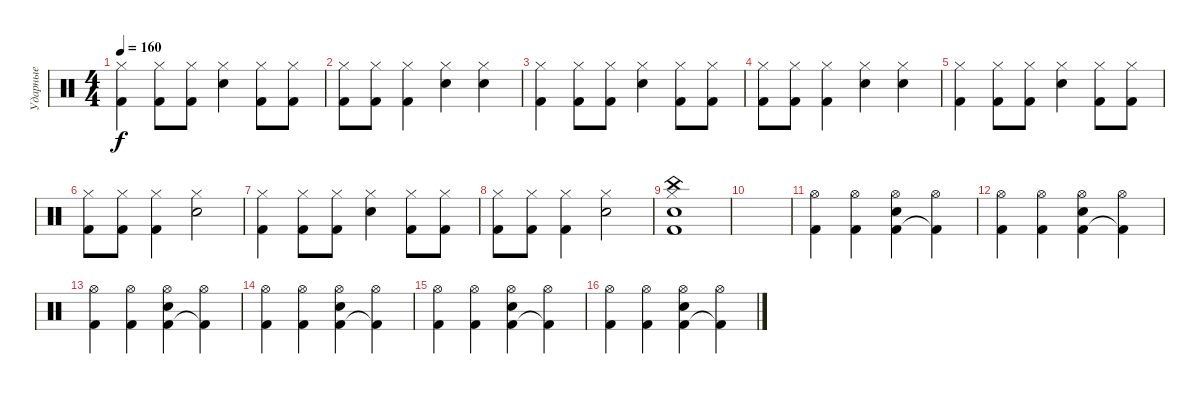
\track ("Ударные" "Ударные") {instrument percussion}
\staff {score}
\articulation defaults
\ts (4 4)
\tempo 160
\clef neutral
\ks c
("Kick (hit) 2" "Hi-Hat (closed)").4{dy f} ("Kick (hit) 2" "Hi-Hat (closed)").8 ("Kick (hit) 2" "Hi-Hat (closed)").8 ("Electric Snare (hit)" "Hi-Hat (closed)").4 ("Kick (hit) 2" "Hi-Hat (closed)").8 ("Kick (hit) 2" "Hi-Hat (closed)").8 |
("Kick (hit) 2" "Hi-Hat (closed)").8 ("Kick (hit) 2" "Hi-Hat (closed)").8 ("Kick (hit) 2" "Hi-Hat (closed)").4 ("Electric Snare (hit)" "Hi-Hat (closed)").4 ("Electric Snare (hit)" "Hi-Hat (closed)").4 |
("Kick (hit) 2" "Hi-Hat (closed)").4 ("Kick (hit) 2" "Hi-Hat (closed)").8 ("Kick (hit) 2" "Hi-Hat (closed)").8 ("Electric Snare (hit)" "Hi-Hat (closed)").4 ("Kick (hit) 2" "Hi-Hat (closed)").8 ("Kick (hit) 2" "Hi-Hat (closed)").8 |
("Kick (hit) 2" "Hi-Hat (closed)").8 ("Kick (hit) 2" "Hi-Hat (closed)").8 ("Kick (hit) 2" "Hi-Hat (closed)").4 ("Electric Snare (hit)" "Hi-Hat (closed)").4 ("Electric Snare (hit)" "Hi-Hat (closed)").4 |
("Kick (hit) 2" "Hi-Hat (closed)").4 ("Kick (hit) 2" "Hi-Hat (closed)").8 ("Kick (hit) 2" "Hi-Hat (closed)").8 ("Electric Snare (hit)" "Hi-Hat (closed)").4 ("Kick (hit) 2" "Hi-Hat (closed)").8 ("Kick (hit) 2" "Hi-Hat (closed)").8 |
("Kick (hit) 2" "Hi-Hat (closed)").8 ("Kick (hit) 2" "Hi-Hat (closed)").8 ("Kick (hit) 2" "Hi-Hat (closed)").4 ("Electric Snare (hit)" "Hi-Hat (closed)").2 |
("Kick (hit) 2" "Hi-Hat (closed)").4 ("Kick (hit) 2" "Hi-Hat (closed)").8 ("Kick (hit) 2" "Hi-Hat (closed)").8 ("Electric Snare (hit)" "Hi-Hat (closed)").4 ("Kick (hit) 2" "Hi-Hat (closed)").8 ("Kick (hit) 2" "Hi-Hat (closed)").8 |
("Kick (hit) 2" "Hi-Hat (closed)").8 ("Kick (hit) 2" "Hi-Hat (closed)").8 ("Kick (hit) 2" "Hi-Hat (closed)").4 ("Electric Snare (hit)" "Hi-Hat (closed)").2 |
("China (hit)" "Electric Snare (hit)" "Kick (hit) 2" "Hi-Hat (closed)").1 |
|
("Kick (hit) 2" "Hi-Hat (open)").4 ("Kick (hit) 2" "Hi-Hat (open)").4 ("Kick (hit) 2" "Electric Snare (hit)" "Hi-Hat (open)").4 ("Kick (hit) 2"{t} "Hi-Hat (open)").4 |
("Kick (hit) 2" "Hi-Hat (open)").4 ("Kick (hit) 2" "Hi-Hat (open)").4 ("Kick (hit) 2" "Electric Snare (hit)" "Hi-Hat (open)").4 ("Kick (hit) 2"{t} "Hi-Hat (open)").4 |
("Kick (hit) 2" "Hi-Hat (open)").4 ("Kick (hit) 2" "Hi-Hat (open)").4 ("Kick (hit) 2" "Electric Snare (hit)" "Hi-Hat (open)").4 ("Kick (hit) 2"{t} "Hi-Hat (open)").4 |
("Kick (hit) 2" "Hi-Hat (open)").4 ("Kick (hit) 2" "Hi-Hat (open)").4 ("Kick (hit) 2" "Electric Snare (hit)" "Hi-Hat (open)").4 ("Kick (hit) 2"{t} "Hi-Hat (open)").4 |
("Kick (hit) 2" "Hi-Hat (open)").4 ("Kick (hit) 2" "Hi-Hat (open)").4 ("Kick (hit) 2" "Electric Snare (hit)" "Hi-Hat (open)").4 ("Kick (hit) 2"{t} "Hi-Hat (open)").4 |
("Kick (hit) 2" "Hi-Hat (open)").4 ("Kick (hit) 2" "Hi-Hat (open)").4 ("Kick (hit) 2" "Electric Snare (hit)" "Hi-Hat (open)").4 ("Kick (hit) 2"{t} "Hi-Hat (open)").4
